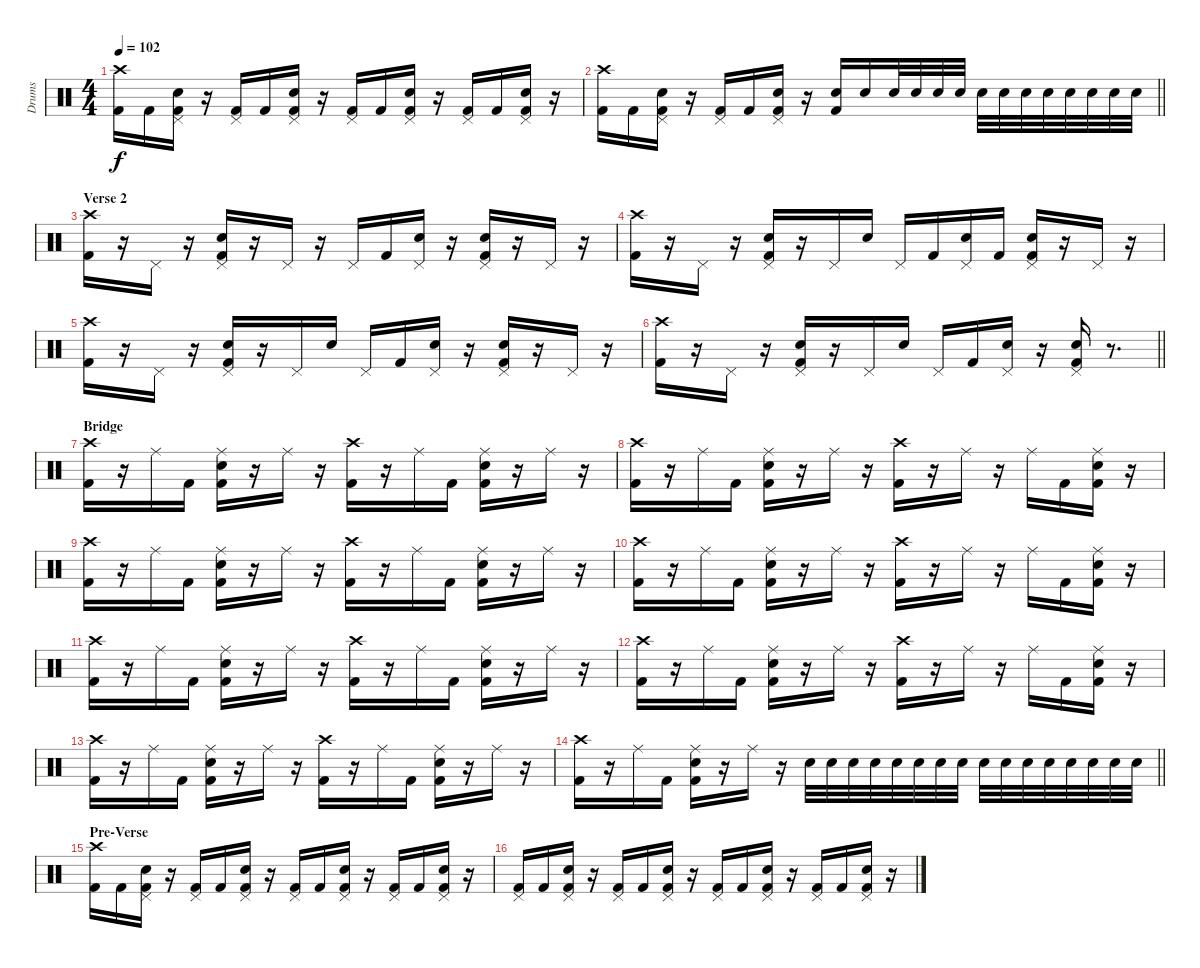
\track ("Drums" "Drums") {instrument percussion}
\staff {score}
\articulation defaults
\ts (4 4)
\tempo 102
\clef neutral
\ks c
("Crash high (hit)" "Kick (hit) 2").16{dy f} "Kick (hit) 2".16 ("Pedal Hi-Hat (hit)" "Snare (hit) 2" "Kick (hit) 2").16 r.16 ("Pedal Hi-Hat (hit)" "Kick (hit) 2").16 "Kick (hit) 2".16 ("Pedal Hi-Hat (hit)" "Snare (hit) 2" "Kick (hit) 2").16 r.16 ("Pedal Hi-Hat (hit)" "Kick (hit) 2").16 "Kick (hit) 2".16 ("Pedal Hi-Hat (hit)" "Snare (hit) 2" "Kick (hit) 2").16 r.16 ("Pedal Hi-Hat (hit)" "Kick (hit) 2").16 "Kick (hit) 2".16 ("Pedal Hi-Hat (hit)" "Snare (hit) 2" "Kick (hit) 2").16 r.16 |
\barLineRight lightlight
("Crash high (hit)" "Kick (hit) 2").16 "Kick (hit) 2".16 ("Pedal Hi-Hat (hit)" "Snare (hit) 2" "Kick (hit) 2").16 r.16 ("Pedal Hi-Hat (hit)" "Kick (hit) 2").16 "Kick (hit) 2".16 ("Pedal Hi-Hat (hit)" "Snare (hit) 2" "Kick (hit) 2").16 r.16 ("Snare (hit) 2" "Kick (hit) 2").16 "Snare (hit) 2".16 "Snare (hit) 2".32 "Snare (hit) 2".32 "Snare (hit) 2".32 "Snare (hit) 2".32 "Snare (hit) 2".32 "Snare (hit) 2".32 "Snare (hit) 2".32 "Snare (hit) 2".32 "Snare (hit) 2".32 "Snare (hit) 2".32 "Snare (hit) 2".32 "Snare (hit) 2".32 |
\section ("" "Verse 2")
("Crash high (hit)" "Kick (hit) 2").16 r.16 "Pedal Hi-Hat (hit)".16 r.16 ("Pedal Hi-Hat (hit)" "Snare (hit) 2" "Kick (hit) 2").16 r.16 "Pedal Hi-Hat (hit)".16 r.16 "Pedal Hi-Hat (hit)".16 "Kick (hit) 2".16 ("Pedal Hi-Hat (hit)" "Snare (hit) 2").16 r.16 ("Pedal Hi-Hat (hit)" "Snare (hit) 2" "Kick (hit) 2").16 r.16 "Pedal Hi-Hat (hit)".16 r.16 |
("Crash high (hit)" "Kick (hit) 2").16 r.16 "Pedal Hi-Hat (hit)".16 r.16 ("Pedal Hi-Hat (hit)" "Snare (hit) 2" "Kick (hit) 2").16 r.16 "Pedal Hi-Hat (hit)".16 "Snare (hit) 2".16 "Pedal Hi-Hat (hit)".16 "Kick (hit) 2".16 ("Pedal Hi-Hat (hit)" "Snare (hit) 2").16 "Kick (hit) 2".16 ("Pedal Hi-Hat (hit)" "Snare (hit) 2" "Kick (hit) 2").16 r.16 "Pedal Hi-Hat (hit)".16 r.16 |
("Crash high (hit)" "Kick (hit) 2").16 r.16 "Pedal Hi-Hat (hit)".16 r.16 ("Pedal Hi-Hat (hit)" "Snare (hit) 2" "Kick (hit) 2").16 r.16 "Pedal Hi-Hat (hit)".16 "Snare (hit) 2".16 "Pedal Hi-Hat (hit)".16 "Kick (hit) 2".16 ("Pedal Hi-Hat (hit)" "Snare (hit) 2").16 r.16 ("Pedal Hi-Hat (hit)" "Snare (hit) 2" "Kick (hit) 2").16 r.16 "Pedal Hi-Hat (hit)".16 r.16 |
\barLineRight lightlight
("Crash high (hit)" "Kick (hit) 2").16 r.16 "Pedal Hi-Hat (hit)".16 r.16 ("Pedal Hi-Hat (hit)" "Snare (hit) 2" "Kick (hit) 2").16 r.16 "Pedal Hi-Hat (hit)".16 "Snare (hit) 2".16 "Pedal Hi-Hat (hit)".16 "Kick (hit) 2".16 ("Pedal Hi-Hat (hit)" "Snare (hit) 2").16 r.16 ("Pedal Hi-Hat (hit)" "Snare (hit) 2" "Kick (hit) 2").16 r.8{d} |
\section ("" "Bridge")
("Crash high (hit)" "Kick (hit) 2").16 r.16 "Ride (middle)".16 "Kick (hit) 2".16 ("Ride (middle)" "Snare (hit) 2" "Kick (hit) 2").16 r.16 "Ride (middle)".16 r.16 ("Crash high (hit)" "Kick (hit) 2").16 r.16 "Ride (middle)".16 "Kick (hit) 2".16 ("Ride (middle)" "Snare (hit) 2" "Kick (hit) 2").16 r.16 "Ride (middle)".16 r.16 |
("Crash high (hit)" "Kick (hit) 2").16 r.16 "Ride (middle)".16 "Kick (hit) 2".16 ("Ride (middle)" "Snare (hit) 2" "Kick (hit) 2").16 r.16 "Ride (middle)".16 r.16 ("Crash high (hit)" "Kick (hit) 2").16 r.16 "Ride (middle)".16 r.16 "Ride (middle)".16 "Kick (hit) 2".16 ("Ride (middle)" "Snare (hit) 2" "Kick (hit) 2").16 r.16 |
("Crash high (hit)" "Kick (hit) 2").16 r.16 "Ride (middle)".16 "Kick (hit) 2".16 ("Ride (middle)" "Snare (hit) 2" "Kick (hit) 2").16 r.16 "Ride (middle)".16 r.16 ("Crash high (hit)" "Kick (hit) 2").16 r.16 "Ride (middle)".16 "Kick (hit) 2".16 ("Ride (middle)" "Snare (hit) 2" "Kick (hit) 2").16 r.16 "Ride (middle)".16 r.16 |
("Crash high (hit)" "Kick (hit) 2").16 r.16 "Ride (middle)".16 "Kick (hit) 2".16 ("Ride (middle)" "Snare (hit) 2" "Kick (hit) 2").16 r.16 "Ride (middle)".16 r.16 ("Crash high (hit)" "Kick (hit) 2").16 r.16 "Ride (middle)".16 r.16 "Ride (middle)".16 "Kick (hit) 2".16 ("Ride (middle)" "Snare (hit) 2" "Kick (hit) 2").16 r.16 |
("Crash high (hit)" "Kick (hit) 2").16 r.16 "Ride (middle)".16 "Kick (hit) 2".16 ("Ride (middle)" "Snare (hit) 2" "Kick (hit) 2").16 r.16 "Ride (middle)".16 r.16 ("Crash high (hit)" "Kick (hit) 2").16 r.16 "Ride (middle)".16 "Kick (hit) 2".16 ("Ride (middle)" "Snare (hit) 2" "Kick (hit) 2").16 r.16 "Ride (middle)".16 r.16 |
("Crash high (hit)" "Kick (hit) 2").16 r.16 "Ride (middle)".16 "Kick (hit) 2".16 ("Ride (middle)" "Snare (hit) 2" "Kick (hit) 2").16 r.16 "Ride (middle)".16 r.16 ("Crash high (hit)" "Kick (hit) 2").16 r.16 "Ride (middle)".16 r.16 "Ride (middle)".16 "Kick (hit) 2".16 ("Ride (middle)" "Snare (hit) 2" "Kick (hit) 2").16 r.16 |
("Crash high (hit)" "Kick (hit) 2").16 r.16 "Ride (middle)".16 "Kick (hit) 2".16 ("Ride (middle)" "Snare (hit) 2" "Kick (hit) 2").16 r.16 "Ride (middle)".16 r.16 ("Crash high (hit)" "Kick (hit) 2").16 r.16 "Ride (middle)".16 "Kick (hit) 2".16 ("Ride (middle)" "Snare (hit) 2" "Kick (hit) 2").16 r.16 "Ride (middle)".16 r.16 |
\barLineRight lightlight
("Crash high (hit)" "Kick (hit) 2").16 r.16 "Ride (middle)".16 "Kick (hit) 2".16 ("Ride (middle)" "Snare (hit) 2" "Kick (hit) 2").16 r.16 "Ride (middle)".16 r.16 "Snare (hit) 2".32 "Snare (hit) 2".32 "Snare (hit) 2".32 "Snare (hit) 2".32 "Snare (hit) 2".32 "Snare (hit) 2".32 "Snare (hit) 2".32 "Snare (hit) 2".32 "Snare (hit) 2".32 "Snare (hit) 2".32 "Snare (hit) 2".32 "Snare (hit) 2".32 "Snare (hit) 2".32 "Snare (hit) 2".32 "Snare (hit) 2".32 "Snare (hit) 2".32 |
\section ("" "Pre-Verse")
("Crash high (hit)" "Kick (hit) 2").16 "Kick (hit) 2".16 ("Pedal Hi-Hat (hit)" "Snare (hit) 2" "Kick (hit) 2").16 r.16 ("Pedal Hi-Hat (hit)" "Kick (hit) 2").16 "Kick (hit) 2".16 ("Pedal Hi-Hat (hit)" "Snare (hit) 2" "Kick (hit) 2").16 r.16 ("Pedal Hi-Hat (hit)" "Kick (hit) 2").16 "Kick (hit) 2".16 ("Pedal Hi-Hat (hit)" "Snare (hit) 2" "Kick (hit) 2").16 r.16 ("Pedal Hi-Hat (hit)" "Kick (hit) 2").16 "Kick (hit) 2".16 ("Pedal Hi-Hat (hit)" "Snare (hit) 2" "Kick (hit) 2").16 r.16 |
("Pedal Hi-Hat (hit)" "Kick (hit) 2").16 "Kick (hit) 2".16 ("Pedal Hi-Hat (hit)" "Snare (hit) 2" "Kick (hit) 2").16 r.16 ("Pedal Hi-Hat (hit)" "Kick (hit) 2").16 "Kick (hit) 2".16 ("Pedal Hi-Hat (hit)" "Snare (hit) 2" "Kick (hit) 2").16 r.16 ("Pedal Hi-Hat (hit)" "Kick (hit) 2").16 "Kick (hit) 2".16 ("Pedal Hi-Hat (hit)" "Snare (hit) 2" "Kick (hit) 2").16 r.16 ("Pedal Hi-Hat (hit)" "Kick (hit) 2").16 "Kick (hit) 2".16 ("Pedal Hi-Hat (hit)" "Snare (hit) 2" "Kick (hit) 2").16 r.16
